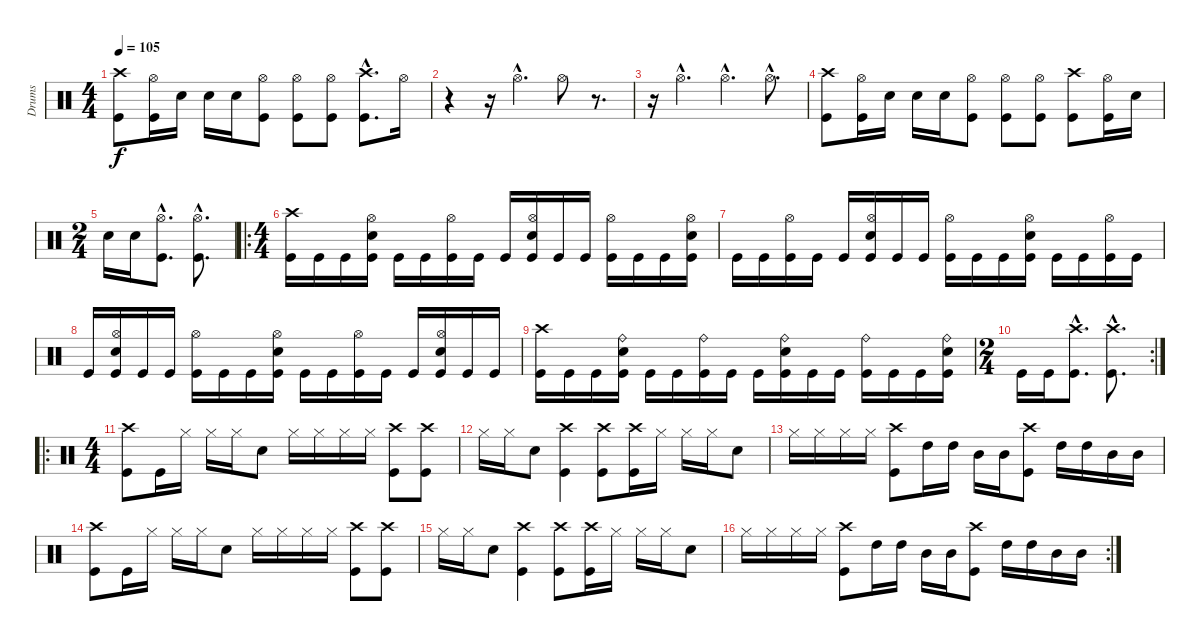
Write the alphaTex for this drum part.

\track ("Drums" "Drums") {instrument percussion}
\staff {score}
\articulation defaults
\ts (4 4)
\tempo 105
\clef neutral
\ks c
("Crash high (hit)" "Kick (hit)").8{dy f} ("Hi-Hat (open)" "Kick (hit)").16 "Snare (hit) 2".16 "Snare (hit) 2".16 "Snare (hit) 2".16 ("Hi-Hat (open)" "Kick (hit)").8 ("Hi-Hat (open)" "Kick (hit)").8 ("Hi-Hat (open)" "Kick (hit)").8 ("Crash high (hit)"{hac} "Kick (hit)"{hac}).8{d} "Hi-Hat (open)".16 |
r.4 r.16 "Hi-Hat (open)"{hac}.4{d} "Hi-Hat (open)".8 r.8{d} |
r.16 "Hi-Hat (open)"{hac}.4{d} "Hi-Hat (open)"{hac}.4{d} "Hi-Hat (open)"{hac}.8{d} |
("Crash high (hit)" "Kick (hit)").8 ("Hi-Hat (open)" "Kick (hit)").16 "Snare (hit) 2".16 "Snare (hit) 2".16 "Snare (hit) 2".16 ("Hi-Hat (open)" "Kick (hit)").8 ("Hi-Hat (open)" "Kick (hit)").8 ("Hi-Hat (open)" "Kick (hit)").8 ("Crash high (hit)" "Kick (hit)").8 ("Hi-Hat (open)" "Kick (hit)").16 "Snare (hit) 2".16 |
\ts (2 4)
"Snare (hit) 2".16 "Snare (hit) 2".16 ("Hi-Hat (open)"{hac} "Kick (hit)"{hac}).8{d} ("Hi-Hat (open)"{hac} "Kick (hit)"{hac}).8{d} |
\ro
\ts (4 4)
("Crash high (hit)" "Kick (hit)").16 "Kick (hit)".16 "Kick (hit)".16 ("Hi-Hat (open)" "Snare (hit) 2" "Kick (hit)").16 "Kick (hit)".16 "Kick (hit)".16 ("Hi-Hat (open)" "Kick (hit)").16 "Kick (hit)".16 "Kick (hit)".16 ("Hi-Hat (open)" "Snare (hit) 2" "Kick (hit)").16 "Kick (hit)".16 "Kick (hit)".16 ("Hi-Hat (open)" "Kick (hit)").16 "Kick (hit)".16 "Kick (hit)".16 ("Hi-Hat (open)" "Snare (hit) 2" "Kick (hit)").16 |
"Kick (hit)".16 "Kick (hit)".16 ("Hi-Hat (open)" "Kick (hit)").16 "Kick (hit)".16 "Kick (hit)".16 ("Hi-Hat (open)" "Snare (hit) 2" "Kick (hit)").16 "Kick (hit)".16 "Kick (hit)".16 ("Hi-Hat (open)" "Kick (hit)").16 "Kick (hit)".16 "Kick (hit)".16 ("Hi-Hat (open)" "Snare (hit) 2" "Kick (hit)").16 "Kick (hit)".16 "Kick (hit)".16 ("Hi-Hat (open)" "Kick (hit)").16 "Kick (hit)".16 |
"Kick (hit)".16 ("Hi-Hat (open)" "Snare (hit) 2" "Kick (hit)").16 "Kick (hit)".16 "Kick (hit)".16 ("Hi-Hat (open)" "Kick (hit)").16 "Kick (hit)".16 "Kick (hit)".16 ("Hi-Hat (open)" "Snare (hit) 2" "Kick (hit)").16 "Kick (hit)".16 "Kick (hit)".16 ("Hi-Hat (open)" "Kick (hit)").16 "Kick (hit)".16 "Kick (hit)".16 ("Hi-Hat (open)" "Snare (hit) 2" "Kick (hit)").16 "Kick (hit)".16 "Kick (hit)".16 |
("Crash high (hit)" "Kick (hit)").16 "Kick (hit)".16 "Kick (hit)".16 ("Ride (bell)" "Snare (hit) 2" "Kick (hit)").16 "Kick (hit)".16 "Kick (hit)".16 ("Ride (bell)" "Kick (hit)").16 "Kick (hit)".16 "Kick (hit)".16 ("Ride (bell)" "Snare (hit) 2" "Kick (hit)").16 "Kick (hit)".16 "Kick (hit)".16 ("Ride (bell)" "Kick (hit)").16 "Kick (hit)".16 "Kick (hit)".16 ("Ride (bell)" "Snare (hit) 2" "Kick (hit)").16 |
\rc 2
\ts (2 4)
"Kick (hit)".16 "Kick (hit)".16 ("Crash high (hit)"{hac} "Kick (hit)"{hac}).8{d} ("Crash high (hit)"{hac} "Kick (hit)"{hac}).8{d} |
\ro
\ts (4 4)
("Crash high (hit)" "Kick (hit)").8 "Kick (hit)".16 "Hi-Hat (closed)".16 "Hi-Hat (closed)".16 "Hi-Hat (closed)".16 "Snare (hit) 2".8 "Hi-Hat (closed)".16 "Hi-Hat (closed)".16 "Hi-Hat (closed)".16 "Hi-Hat (closed)".16 ("Crash high (hit)" "Kick (hit)").8 ("Crash high (hit)" "Kick (hit)").8 |
"Hi-Hat (closed)".16 "Hi-Hat (closed)".16 "Snare (hit) 2".8 ("Crash high (hit)" "Kick (hit)").4 ("Crash high (hit)" "Kick (hit)").8 ("Crash high (hit)" "Kick (hit)").16 "Hi-Hat (closed)".16 "Hi-Hat (closed)".16 "Hi-Hat (closed)".16 "Snare (hit) 2".8 |
"Hi-Hat (closed)".16 "Hi-Hat (closed)".16 "Hi-Hat (closed)".16 "Hi-Hat (closed)".16 ("Crash high (hit)" "Kick (hit)").8 "High Tom (hit)".16 "High Tom (hit)".16 "Mid Tom (hit)".16 "Mid Tom (hit)".16 ("Crash high (hit)" "Kick (hit)").8 "High Tom (hit)".16 "High Tom (hit)".16 "Mid Tom (hit)".16 "Mid Tom (hit)".16 |
("Crash high (hit)" "Kick (hit)").8 "Kick (hit)".16 "Hi-Hat (closed)".16 "Hi-Hat (closed)".16 "Hi-Hat (closed)".16 "Snare (hit) 2".8 "Hi-Hat (closed)".16 "Hi-Hat (closed)".16 "Hi-Hat (closed)".16 "Hi-Hat (closed)".16 ("Crash high (hit)" "Kick (hit)").8 ("Crash high (hit)" "Kick (hit)").8 |
"Hi-Hat (closed)".16 "Hi-Hat (closed)".16 "Snare (hit) 2".8 ("Crash high (hit)" "Kick (hit)").4 ("Crash high (hit)" "Kick (hit)").8 ("Crash high (hit)" "Kick (hit)").16 "Hi-Hat (closed)".16 "Hi-Hat (closed)".16 "Hi-Hat (closed)".16 "Snare (hit) 2".8 |
\rc 2 "Hi-Hat (closed)".16 "Hi-Hat (closed)".16 "Hi-Hat (closed)".16 "Hi-Hat (closed)".16
("Crash high (hit)" "Kick (hit)").8 "High Tom (hit)".16 "High Tom (hit)".16 "Mid Tom (hit)".16 "Mid Tom (hit)".16 ("Crash high (hit)" "Kick (hit)").8 "High Tom (hit)".16 "High Tom (hit)".16 "Mid Tom (hit)".16 "Mid Tom (hit)".16
